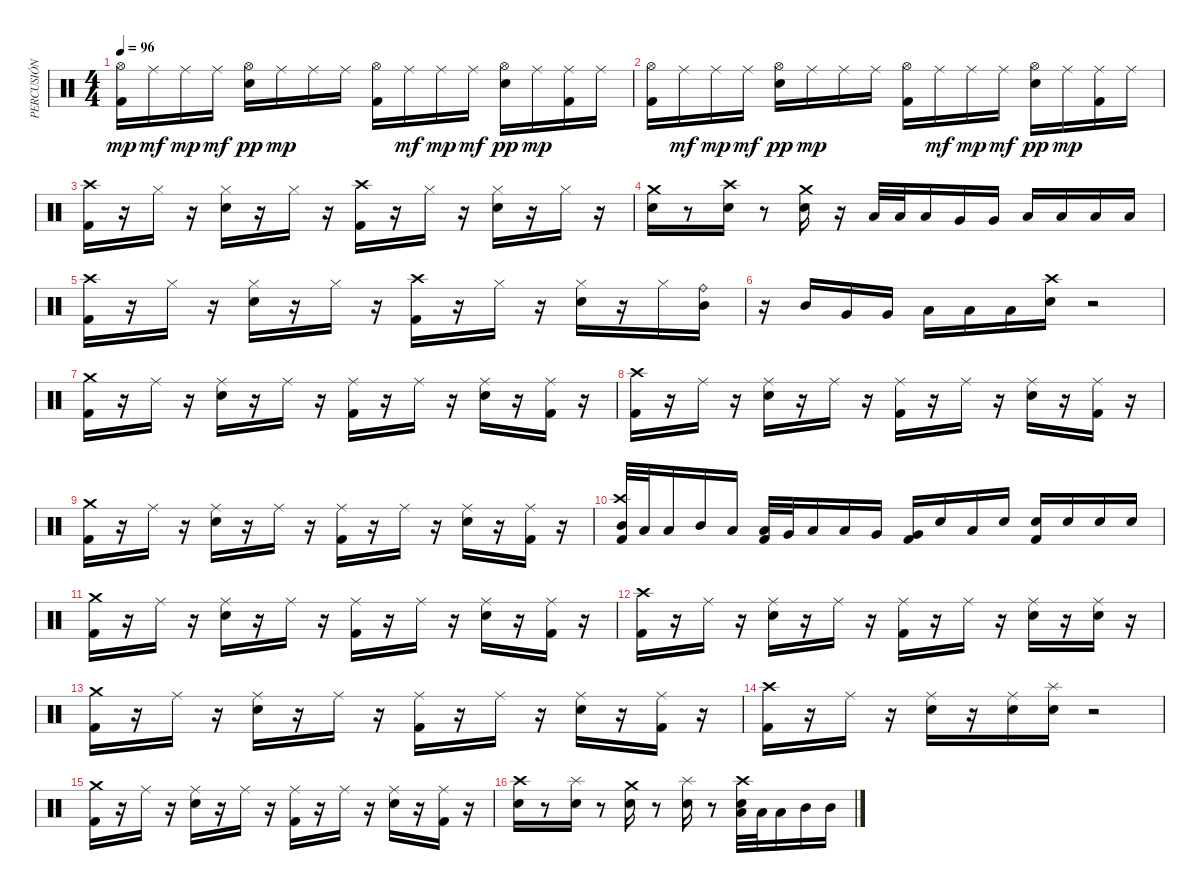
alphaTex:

\track ("PERCUSIÓN" "PERCUSIÓN") {instrument percussion}
\staff {score}
\articulation defaults
\ts (4 4)
\tempo 96
\clef neutral
\ks c
("Kick (hit) 2" "Hi-Hat (open)").16{dy mp} "Ride (middle)".16{dy mf} "Ride (middle)".16{dy mp} "Ride (middle)".16{dy mf} ("Snare (hit) 2" "Hi-Hat (open)").16{dy pp} "Ride (middle)".16{dy mp} "Ride (middle)".16 "Ride (middle)".16 ("Kick (hit) 2" "Hi-Hat (open)").16 "Ride (middle)".16{dy mf} "Ride (middle)".16{dy mp} "Ride (middle)".16{dy mf} ("Snare (hit) 2" "Hi-Hat (open)").16{dy pp} "Ride (middle)".16{dy mp} ("Kick (hit) 2" "Ride (middle)").16 "Ride (middle)".16 |
("Kick (hit) 2" "Hi-Hat (open)").16 "Ride (middle)".16{dy mf} "Ride (middle)".16{dy mp} "Ride (middle)".16{dy mf} ("Snare (hit) 2" "Hi-Hat (open)").16{dy pp} "Ride (middle)".16{dy mp} "Ride (middle)".16 "Ride (middle)".16 ("Kick (hit) 2" "Hi-Hat (open)").16 "Ride (middle)".16{dy mf} "Ride (middle)".16{dy mp} "Ride (middle)".16{dy mf} ("Snare (hit) 2" "Hi-Hat (open)").16{dy pp} "Ride (middle)".16{dy mp} ("Kick (hit) 2" "Ride (middle)").16 "Ride (middle)".16 |
("Kick (hit) 2" "Crash high (hit)").16 r.16 "Hi-Hat (closed)".16 r.16 ("Snare (hit) 2" "Hi-Hat (closed)").16 r.16 "Hi-Hat (closed)".16 r.16 ("Crash high (hit)" "Kick (hit) 2").16 r.16 "Hi-Hat (closed)".16 r.16 ("Snare (hit) 2" "Hi-Hat (closed)").16 r.16 "Hi-Hat (closed)".16 r.16 |
("Snare (hit) 2" "Crash medium (hit)").16 r.8 ("Snare (hit) 2" "Crash high (hit)").16 r.8 ("Snare (hit) 2" "Crash medium (hit)").16 r.16 "Low Tom (hit)".32 "Low Tom (hit)".32 "Low Tom (hit)".16 "Very Low Tom (hit)".16 "Very Low Tom (hit)".16 "Low Floor Tom (hit)".16 "Low Floor Tom (hit)".16 "Low Floor Tom (hit)".16 "Low Floor Tom (hit)".16 |
("Crash high (hit)" "Kick (hit) 2").16 r.16 "Hi-Hat (closed)".16 r.16 ("Snare (hit) 2" "Hi-Hat (closed)").16 r.16 "Hi-Hat (closed)".16 r.16 ("Crash high (hit)" "Kick (hit) 2").16 r.16 "Hi-Hat (closed)".16 r.16 ("Snare (hit) 2" "Hi-Hat (closed)").16 r.16 "Hi-Hat (closed)".16 ("Mid Tom (hit)" "Ride (bell)").16 |
r.16 "Mid Tom (hit)".16 "Very Low Tom (hit)".16 "Very Low Tom (hit)".16 "Low Floor Tom (hit)".16 "Low Floor Tom (hit)".16 "Low Floor Tom (hit)".16 ("Snare (hit) 2" "Crash high (hit)").16 r.2 |
("Kick (hit) 2" "Crash medium (hit)").16 r.16 "Ride (middle)".16 r.16 ("Snare (hit) 2" "Ride (middle)").16 r.16 "Ride (middle)".16 r.16 ("Kick (hit) 2" "Ride (middle)").16 r.16 "Ride (middle)".16 r.16 ("Snare (hit) 2" "Ride (middle)").16 r.16 ("Kick (hit) 2" "Ride (middle)").16 r.16 |
("Kick (hit) 2" "Crash high (hit)").16 r.16 "Ride (middle)".16 r.16 ("Snare (hit) 2" "Ride (middle)").16 r.16 "Ride (middle)".16 r.16 ("Kick (hit) 2" "Ride (middle)").16 r.16 "Ride (middle)".16 r.16 ("Snare (hit) 2" "Ride (middle)").16 r.16 ("Kick (hit) 2" "Ride (middle)").16 r.16 |
("Crash medium (hit)" "Kick (hit) 2").16 r.16 "Ride (middle)".16 r.16 ("Snare (hit) 2" "Ride (middle)").16 r.16 "Ride (middle)".16 r.16 ("Kick (hit) 2" "Ride (middle)").16 r.16 "Ride (middle)".16 r.16 ("Snare (hit) 2" "Ride (middle)").16 r.16 ("Kick (hit) 2" "Ride (middle)").16 r.16 |
("Mid Tom (hit)" "Crash high (hit)" "Kick (hit) 2").32 "Low Tom (hit)".32 "Low Floor Tom (hit)".16 "Mid Tom (hit)".16 "Low Floor Tom (hit)".16 ("Low Tom (hit)" "Kick (hit) 2").32 "Very Low Tom (hit)".32 "Low Tom (hit)".16 "Low Floor Tom (hit)".16 "Very Low Tom (hit)".16 ("Very Low Tom (hit)" "Kick (hit) 2").16 "Electric Snare (hit)".16 "Low Floor Tom (hit)".16 "Electric Snare (hit)".16 ("Kick (hit) 2" "Snare (hit) 2").16 "Snare (hit) 2".16 "Snare (hit) 2".16 "Snare (hit) 2".16 |
("Kick (hit) 2" "Crash medium (hit)").16 r.16 "Ride (middle)".16 r.16 ("Snare (hit) 2" "Ride (middle)").16 r.16 "Ride (middle)".16 r.16 ("Kick (hit) 2" "Ride (middle)").16 r.16 "Ride (middle)".16 r.16 ("Snare (hit) 2" "Ride (middle)").16 r.16 ("Kick (hit) 2" "Ride (middle)").16 r.16 |
("Kick (hit) 2" "Crash high (hit)").16 r.16 "Ride (middle)".16 r.16 ("Snare (hit) 2" "Ride (middle)").16 r.16 "Ride (middle)".16 r.16 ("Kick (hit) 2" "Ride (middle)").16 r.16 "Ride (middle)".16 r.16 ("Snare (hit) 2" "Ride (middle)").16 r.16 ("Ride (middle)" "Snare (hit) 2").16 r.16 |
("Crash medium (hit)" "Kick (hit) 2").16 r.16 "Ride (middle)".16 r.16 ("Snare (hit) 2" "Ride (middle)").16 r.16 "Ride (middle)".16 r.16 ("Kick (hit) 2" "Ride (middle)").16 r.16 "Ride (middle)".16 r.16 ("Snare (hit) 2" "Ride (middle)").16 r.16 ("Kick (hit) 2" "Ride (middle)").16 r.16 |
("Kick (hit) 2" "Crash high (hit)").16 r.16 "Ride (middle)".16 r.16 ("Snare (hit) 2" "Ride (middle)").16 r.16 ("Ride (middle)" "Snare (hit) 2").16 ("Snare (hit) 2" "Splash (hit)").16 r.2 |
("Crash medium (hit)" "Kick (hit) 2").16 r.16 "Ride (middle)".16 r.16 ("Snare (hit) 2" "Ride (middle)").16 r.16 "Ride (middle)".16 r.16 ("Kick (hit) 2" "Ride (middle)").16 r.16 "Ride (middle)".16 r.16 ("Snare (hit) 2" "Ride (middle)").16 r.16 ("Kick (hit) 2" "Ride (middle)").16 r.16 |
("Crash high (hit)" "Snare (hit) 2").16 r.8 ("Splash (hit)" "Snare (hit) 2").16 r.8 ("Crash medium (hit)" "Snare (hit) 2").16 r.8 ("Splash (hit)" "Snare (hit) 2").16 r.8 ("Crash high (hit)" "Low Tom (hit)" "Snare (hit) 2").32 "Low Tom (hit)".32 "Low Tom (hit)".16 "Mid Tom (hit)".16 "Mid Tom (hit)".16
